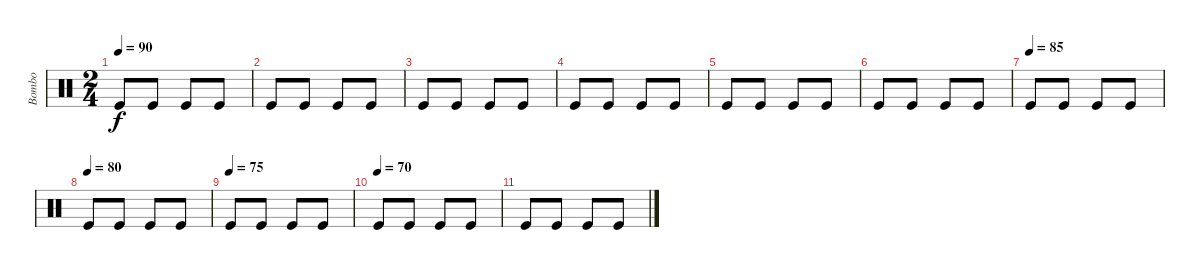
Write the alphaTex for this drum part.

\track ("Bombo" "Bombo") {instrument percussion}
\staff {score}
\articulation defaults
\ts (2 4)
\tempo 90
\clef neutral
\ks c "Kick (hit)".8{dy f} "Kick (hit)".8 "Kick (hit)".8 "Kick (hit)".8
|
"Kick (hit)".8 "Kick (hit)".8 "Kick (hit)".8 "Kick (hit)".8 |
"Kick (hit)".8 "Kick (hit)".8 "Kick (hit)".8 "Kick (hit)".8 |
"Kick (hit)".8 "Kick (hit)".8 "Kick (hit)".8 "Kick (hit)".8 |
"Kick (hit)".8 "Kick (hit)".8 "Kick (hit)".8 "Kick (hit)".8 |
"Kick (hit)".8 "Kick (hit)".8 "Kick (hit)".8 "Kick (hit)".8 |
\tempo (85)
"Kick (hit)".8 "Kick (hit)".8 "Kick (hit)".8 "Kick (hit)".8 |
\tempo (80)
"Kick (hit)".8 "Kick (hit)".8 "Kick (hit)".8 "Kick (hit)".8 |
\tempo (75)
"Kick (hit)".8 "Kick (hit)".8 "Kick (hit)".8 "Kick (hit)".8 |
\tempo (70)
"Kick (hit)".8 "Kick (hit)".8 "Kick (hit)".8 "Kick (hit)".8 |
"Kick (hit)".8 "Kick (hit)".8 "Kick (hit)".8 "Kick (hit)".8
